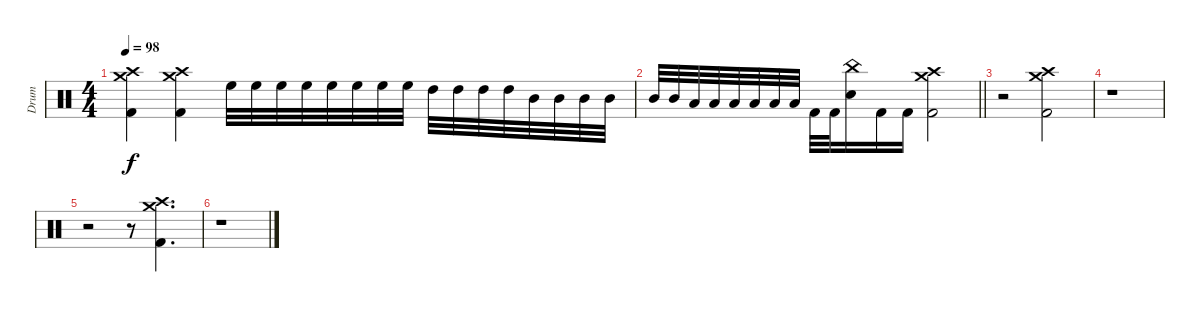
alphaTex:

\track ("Drum" "Drum") {instrument percussion}
\staff {score}
\articulation defaults
\ts (4 4)
\tempo 98
\clef neutral
\ks c
("Crash medium (hit)" "Crash high (hit)" "Kick (hit) 2").4{dy f} ("Crash medium (hit)" "Crash high (hit)" "Kick (hit) 2").4 "High Floor Tom (hit)".32 "High Floor Tom (hit)".32 "High Floor Tom (hit)".32 "High Floor Tom (hit)".32 "High Floor Tom (hit)".32 "High Floor Tom (hit)".32 "High Floor Tom (hit)".32 "High Floor Tom (hit)".32 "High Tom (hit)".32 "High Tom (hit)".32 "High Tom (hit)".32 "High Tom (hit)".32 "Mid Tom (hit)".32 "Mid Tom (hit)".32 "Mid Tom (hit)".32 "Mid Tom (hit)".32 |
\barLineRight lightlight "Mid Tom (hit)".32 "Mid Tom (hit)".32 "Low Tom (hit)".32 "Low Tom (hit)".32 "Low Tom (hit)".32 "Low Tom (hit)".32 "Low Tom (hit)".32 "Low Tom (hit)".32 "Kick (hit) 2".32 "Kick (hit) 2".32
("China (hit)" "Snare (hit) 2").16 "Kick (hit) 2".16 "Kick (hit) 2".16 ("Crash medium (hit)" "Crash high (hit)" "Kick (hit) 2").2 |
r.2 ("Crash medium (hit)" "Crash high (hit)" "Kick (hit) 2").2 |
r.1 |
r.2 r.8 ("Crash medium (hit)" "Crash high (hit)" "Kick (hit) 2").4{d} |
r.1
